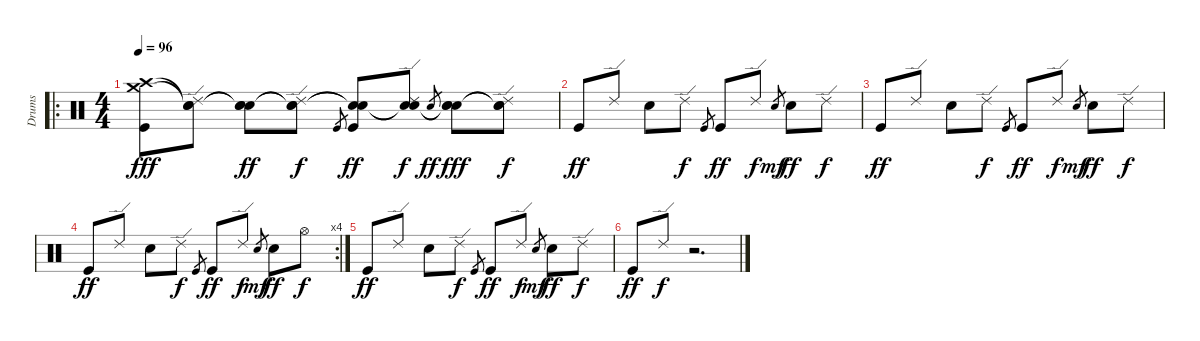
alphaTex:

\track ("Drums" "Drums") {instrument percussion}
\staff {score}
\articulation defaults
\ro
\ts (4 4)
\tempo 96
\clef neutral
\ks c
("Kick (hit)" "Crash medium (hit)" "Crash high (hit)").8{dy fff} ("Ride (edge) 2" "Snare (hit)"{t} "Snare (hit)"{t}).8 ("Snare (hit) 2" "Snare (hit)"{t} "Snare (hit)"{t}).8{dy ff} ("Ride (edge) 2" "Snare (hit)"{t} "Snare (hit)"{t}).8{dy f} "Kick (hit)".8{gr} ("Kick (hit)" "Snare (hit)"{t} "Snare (hit)"{t}).8{dy ff} ("Ride (edge) 2" "Snare (hit)"{t} "Snare (hit)"{t}).8{dy f} "Snare (hit) 2".8{gr dy ff} ("Snare (hit) 2" "Snare (hit)"{t} "Snare (hit)"{t}).8{dy fff} ("Ride (edge) 2" "Snare (hit)"{t} "Snare (hit)"{t}).8{dy f} |
"Kick (hit)".8{dy ff} "Ride (edge) 2".8 "Snare (hit) 2".8 "Ride (edge) 2".8{dy f} "Kick (hit)".8{gr} "Kick (hit)".8{dy ff} "Ride (edge) 2".8{dy f} "Snare (hit) 2".8{gr dy mf} "Snare (hit) 2".8{dy ff} "Ride (edge) 2".8{dy f} |
"Kick (hit)".8{dy ff} "Ride (edge) 2".8 "Snare (hit) 2".8 "Ride (edge) 2".8{dy f} "Kick (hit)".8{gr} "Kick (hit)".8{dy ff} "Ride (edge) 2".8{dy f} "Snare (hit) 2".8{gr dy mf} "Snare (hit) 2".8{dy ff} "Ride (edge) 2".8{dy f} |
\rc 4 "Kick (hit)".8{dy ff} "Ride (edge) 2".8 "Snare (hit) 2".8 "Ride (edge) 2".8{dy f} "Kick (hit)".8{gr} "Kick (hit)".8{dy ff} "Ride (edge) 2".8{dy f} "Snare (hit) 2".8{gr dy mf} "Snare (hit) 2".8{dy ff} "Hi-Hat (open)".8{dy f}
|
"Kick (hit)".8{dy ff} "Ride (edge) 2".8 "Snare (hit) 2".8 "Ride (edge) 2".8{dy f} "Kick (hit)".8{gr} "Kick (hit)".8{dy ff} "Ride (edge) 2".8{dy f} "Snare (hit) 2".8{gr dy mf} "Snare (hit) 2".8{dy ff} "Ride (edge) 2".8{dy f} |
"Kick (hit)".8{dy ff} "Ride (edge) 2".8{dy f} r.2{d}
